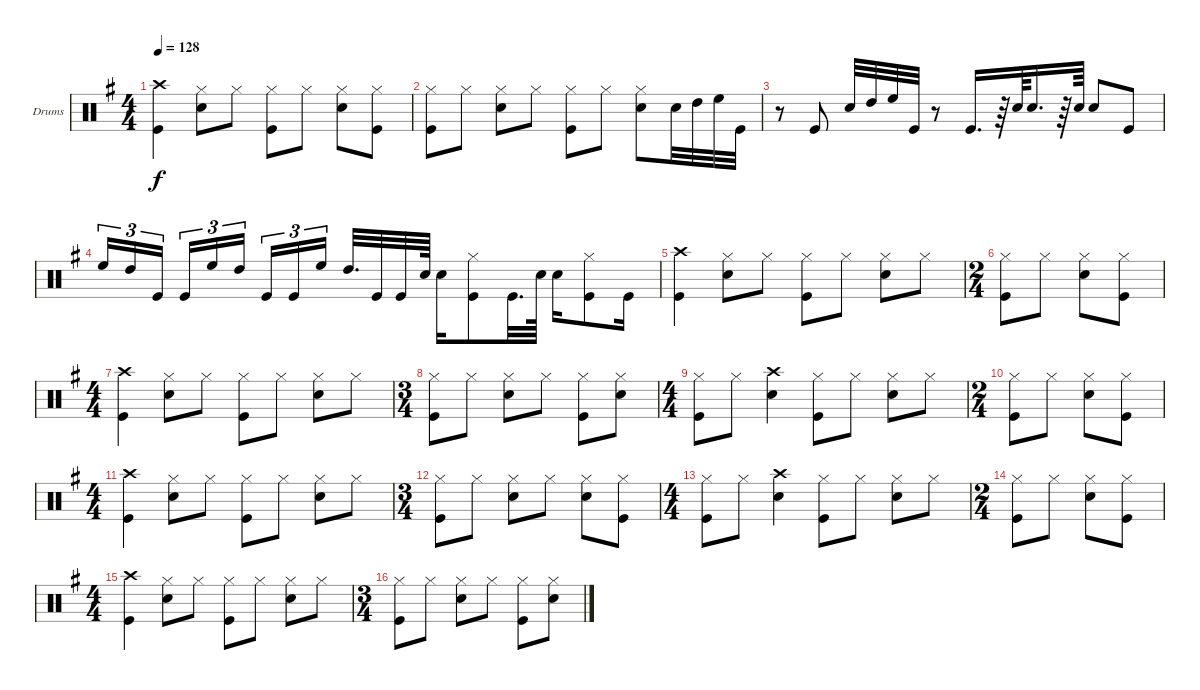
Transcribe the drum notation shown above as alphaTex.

\defaultSystemsLayout 4
\bracketExtendMode groupsimilarinstruments
\firstSystemTrackNameOrientation horizontal
\otherSystemsTrackNameOrientation horizontal
\track ("Drumkit" "Drums") {instrument percussion}
\staff {score}
\articulation defaults
\ts (4 4)
\tempo 128
\clef neutral
\ks g
("Kick (hit)" "Crash high (hit)").4{dy f} ("Snare (hit) 2" "Hi-Hat (closed)").8 "Hi-Hat (closed)".8 ("Hi-Hat (closed)" "Kick (hit)").8 "Hi-Hat (closed)".8 ("Snare (hit) 2" "Hi-Hat (closed)").8 ("Kick (hit)" "Hi-Hat (closed)").8 |
("Hi-Hat (closed)" "Kick (hit)").8 "Hi-Hat (closed)".8 ("Snare (hit) 2" "Hi-Hat (closed)").8 "Hi-Hat (closed)".8 ("Hi-Hat (closed)" "Kick (hit)").8 "Hi-Hat (closed)".8 ("Snare (hit) 2" "Hi-Hat (closed)").8 "Snare (hit) 2".32 "High Tom (hit)".32 "High Floor Tom (hit)".32 "Kick (hit)".32 |
r.8 "Kick (hit)".8 "Snare (hit) 2".32 "High Tom (hit)".32 "High Floor Tom (hit)".32 "Kick (hit)".32 r.8 "Kick (hit)".16{d} r.64 "Snare (hit) 2".64 "Snare (hit) 2".16{d} r.64 "Snare (hit) 2".64 "Snare (hit) 2".8 "Kick (hit)".8 |
"High Floor Tom (hit)".16{tu (3 2)} "High Tom (hit)".16{tu (3 2)} "Kick (hit)".16{tu (3 2)} "Kick (hit)".16{tu (3 2)} "High Floor Tom (hit)".16{tu (3 2)} "High Tom (hit)".16{tu (3 2)} "Kick (hit)".16{tu (3 2)} "Kick (hit)".16{tu (3 2)} "High Floor Tom (hit)".16{tu (3 2)} "High Tom (hit)".32{d} "Kick (hit)".32 "Kick (hit)".32 "Snare (hit) 2".64 "Snare (hit) 2".16 ("Hi-Hat (closed)" "Kick (hit)").8 "Kick (hit)".32{d} "Snare (hit) 2".64 "Snare (hit) 2".16 ("Hi-Hat (closed)" "Kick (hit)").8 "Kick (hit)".16 |
("Kick (hit)" "Crash high (hit)").4 ("Hi-Hat (closed)" "Snare (hit) 2").8 "Hi-Hat (closed)".8 ("Hi-Hat (closed)" "Kick (hit)").8 "Hi-Hat (closed)".8 ("Snare (hit) 2" "Hi-Hat (closed)").8 "Hi-Hat (closed)".8 |
\ts (2 4)
("Kick (hit)" "Hi-Hat (closed)").8 "Hi-Hat (closed)".8 ("Snare (hit) 2" "Hi-Hat (closed)").8 ("Kick (hit)" "Hi-Hat (closed)").8 |
\ts (4 4)
("Kick (hit)" "Crash high (hit)").4 ("Hi-Hat (closed)" "Snare (hit) 2").8 "Hi-Hat (closed)".8 ("Hi-Hat (closed)" "Kick (hit)").8 "Hi-Hat (closed)".8 ("Snare (hit) 2" "Hi-Hat (closed)").8 "Hi-Hat (closed)".8 |
\ts (3 4)
("Kick (hit)" "Hi-Hat (closed)").8 "Hi-Hat (closed)".8 ("Snare (hit) 2" "Hi-Hat (closed)").8 "Hi-Hat (closed)".8 ("Kick (hit)" "Hi-Hat (closed)").8 ("Snare (hit) 2" "Hi-Hat (closed)").8 |
\ts (4 4)
("Hi-Hat (closed)" "Kick (hit)").8 "Hi-Hat (closed)".8 ("Snare (hit) 2" "Crash high (hit)").4 ("Hi-Hat (closed)" "Kick (hit)").8 "Hi-Hat (closed)".8 ("Snare (hit) 2" "Hi-Hat (closed)").8 "Hi-Hat (closed)".8 |
\ts (2 4)
("Kick (hit)" "Hi-Hat (closed)").8 "Hi-Hat (closed)".8 ("Snare (hit) 2" "Hi-Hat (closed)").8 ("Kick (hit)" "Hi-Hat (closed)").8 |
\ts (4 4)
("Crash high (hit)" "Kick (hit)").4 ("Snare (hit) 2" "Hi-Hat (closed)").8 "Hi-Hat (closed)".8 ("Hi-Hat (closed)" "Kick (hit)").8 "Hi-Hat (closed)".8 ("Snare (hit) 2" "Hi-Hat (closed)").8 "Hi-Hat (closed)".8 |
\ts (3 4)
("Kick (hit)" "Hi-Hat (closed)").8 "Hi-Hat (closed)".8 ("Snare (hit) 2" "Hi-Hat (closed)").8 "Hi-Hat (closed)".8 ("Hi-Hat (closed)" "Snare (hit) 2").8 ("Kick (hit)" "Hi-Hat (closed)").8 |
\ts (4 4)
("Hi-Hat (closed)" "Kick (hit)").8 "Hi-Hat (closed)".8 ("Snare (hit) 2" "Crash high (hit)").4 ("Hi-Hat (closed)" "Kick (hit)").8 "Hi-Hat (closed)".8 ("Snare (hit) 2" "Hi-Hat (closed)").8 "Hi-Hat (closed)".8 |
\ts (2 4)
("Kick (hit)" "Hi-Hat (closed)").8 "Hi-Hat (closed)".8 ("Snare (hit) 2" "Hi-Hat (closed)").8 ("Kick (hit)" "Hi-Hat (closed)").8 |
\ts (4 4)
("Crash high (hit)" "Kick (hit)").4 ("Snare (hit) 2" "Hi-Hat (closed)").8 "Hi-Hat (closed)".8 ("Hi-Hat (closed)" "Kick (hit)").8 "Hi-Hat (closed)".8 ("Snare (hit) 2" "Hi-Hat (closed)").8 "Hi-Hat (closed)".8 |
\ts (3 4)
("Kick (hit)" "Hi-Hat (closed)").8 "Hi-Hat (closed)".8 ("Snare (hit) 2" "Hi-Hat (closed)").8 "Hi-Hat (closed)".8 ("Kick (hit)" "Hi-Hat (closed)").8 ("Snare (hit) 2" "Hi-Hat (closed)").8
